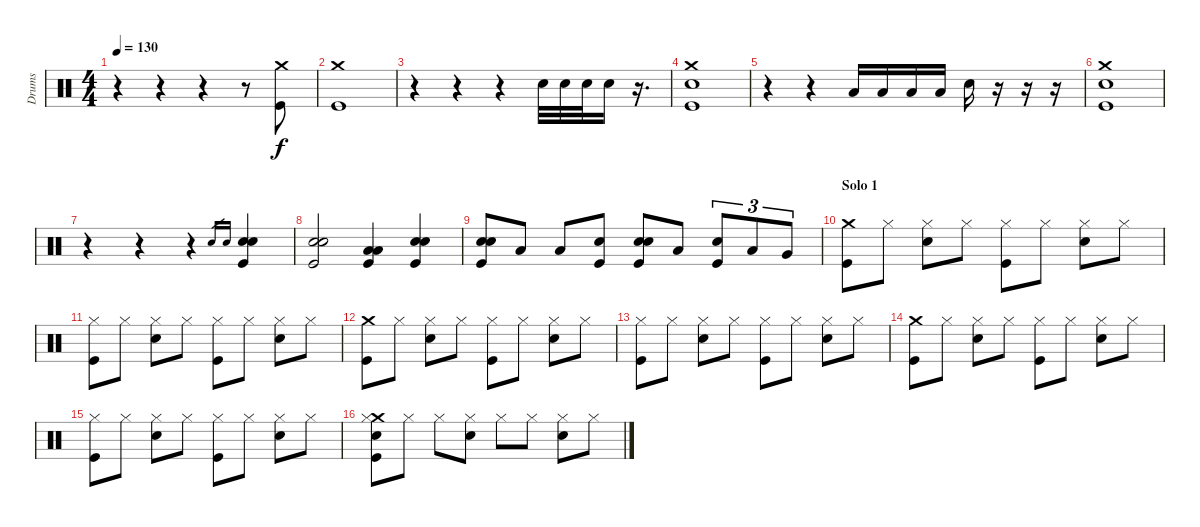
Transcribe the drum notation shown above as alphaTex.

\track ("Drums" "Drums") {instrument percussion}
\staff {score}
\articulation defaults
\ts (4 4)
\tempo 130
\clef neutral
\ks c
r.4{dy f} r.4 r.4 r.8 ("Crash medium (hit)" "Kick (hit)").8 |
("Crash medium (hit)" "Kick (hit)").1 |
r.4 r.4 r.4 "Snare (hit) 2".32 "Snare (hit) 2".32 "Snare (hit) 2".32 "Snare (hit) 2".16 r.16{d} |
("Crash medium (hit)" "Snare (hit) 2" "Kick (hit)").1 |
r.4 r.4 "Low Tom (hit)".16 "Low Tom (hit)".16 "Low Tom (hit)".16 "Low Tom (hit)".16 "Electric Snare (hit)".16 r.16 r.16 r.16 |
("Crash medium (hit)" "Snare (hit) 2" "Kick (hit)").1 |
r.4 r.4 r.4 "Electric Snare (hit)".16{gr} "Electric Snare (hit)".16{gr} ("Electric Snare (hit)" "Electric Snare (hit)" "Kick (hit)").4 |
("Electric Snare (hit)" "Electric Snare (hit)" "Kick (hit)").2 ("Low Tom (hit)" "Low Tom (hit)" "Kick (hit)").4 ("Electric Snare (hit)" "Electric Snare (hit)" "Kick (hit)").4 |
("Electric Snare (hit)" "Electric Snare (hit)" "Kick (hit)").8 "Low Tom (hit)".8 "Low Tom (hit)".8 ("Electric Snare (hit)" "Kick (hit)").8 ("Electric Snare (hit)" "Electric Snare (hit)" "Kick (hit)").8 "Low Tom (hit)".8 ("Electric Snare (hit)" "Kick (hit)").8{tu (3 2)} "Low Tom (hit)".8{tu (3 2)} "Very Low Tom (hit)".8{tu (3 2)} |
\section ("" "Solo 1")
("Crash medium (hit)" "Kick (hit)").8 "Hi-Hat (closed)".8 ("Snare (hit) 2" "Hi-Hat (closed)").8 "Hi-Hat (closed)".8 ("Hi-Hat (closed)" "Kick (hit)").8 "Hi-Hat (closed)".8 ("Snare (hit) 2" "Hi-Hat (closed)").8 "Hi-Hat (closed)".8 |
("Hi-Hat (closed)" "Kick (hit)").8 "Hi-Hat (closed)".8 ("Snare (hit) 2" "Hi-Hat (closed)").8 "Hi-Hat (closed)".8 ("Hi-Hat (closed)" "Kick (hit)").8 "Hi-Hat (closed)".8 ("Snare (hit) 2" "Hi-Hat (closed)").8 "Hi-Hat (closed)".8 |
("Crash medium (hit)" "Kick (hit)").8 "Hi-Hat (closed)".8 ("Snare (hit) 2" "Hi-Hat (closed)").8 "Hi-Hat (closed)".8 ("Hi-Hat (closed)" "Kick (hit)").8 "Hi-Hat (closed)".8 ("Snare (hit) 2" "Hi-Hat (closed)").8 "Hi-Hat (closed)".8 |
("Hi-Hat (closed)" "Kick (hit)").8 "Hi-Hat (closed)".8 ("Snare (hit) 2" "Hi-Hat (closed)").8 "Hi-Hat (closed)".8 ("Hi-Hat (closed)" "Kick (hit)").8 "Hi-Hat (closed)".8 ("Snare (hit) 2" "Hi-Hat (closed)").8 "Hi-Hat (closed)".8 |
("Crash medium (hit)" "Kick (hit)").8 "Hi-Hat (closed)".8 ("Snare (hit) 2" "Hi-Hat (closed)").8 "Hi-Hat (closed)".8 ("Hi-Hat (closed)" "Kick (hit)").8 "Hi-Hat (closed)".8 ("Snare (hit) 2" "Hi-Hat (closed)").8 "Hi-Hat (closed)".8 |
("Hi-Hat (closed)" "Kick (hit)").8 "Hi-Hat (closed)".8 ("Snare (hit) 2" "Hi-Hat (closed)").8 "Hi-Hat (closed)".8 ("Hi-Hat (closed)" "Kick (hit)").8 "Hi-Hat (closed)".8 ("Snare (hit) 2" "Hi-Hat (closed)").8 "Hi-Hat (closed)".8 |
("Crash medium (hit)" "Snare (hit) 2" "Hi-Hat (closed)" "Kick (hit)").8 "Hi-Hat (closed)".8 "Hi-Hat (closed)".8 ("Snare (hit) 2" "Hi-Hat (closed)").8 "Hi-Hat (closed)".8 "Hi-Hat (closed)".8 ("Snare (hit) 2" "Hi-Hat (closed)").8 "Hi-Hat (closed)".8
